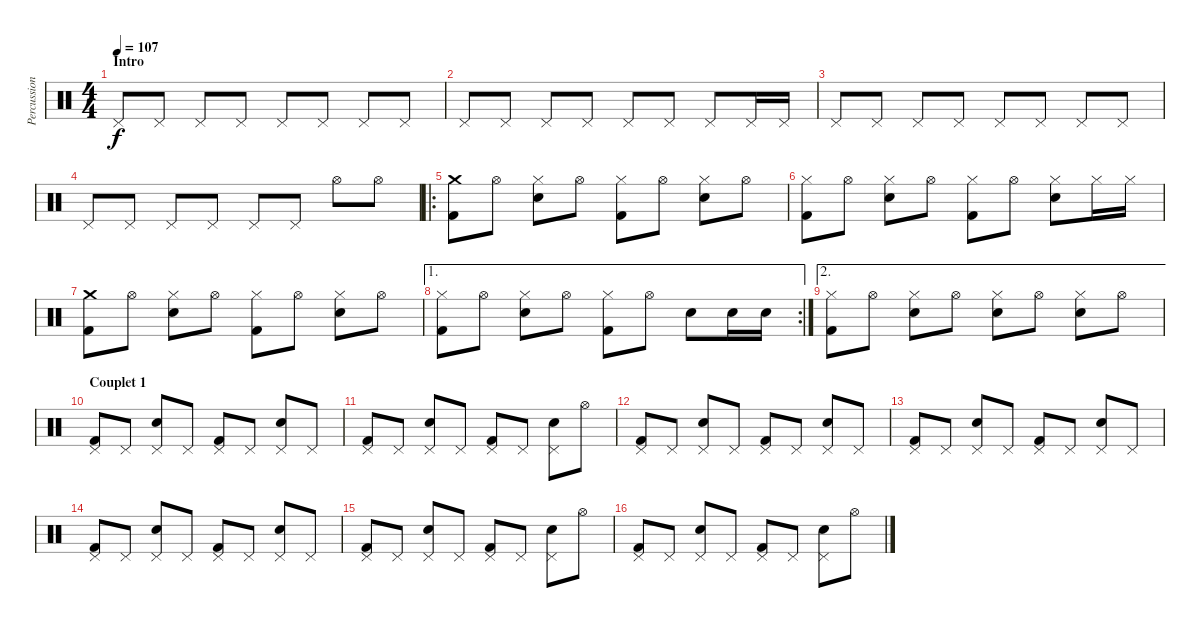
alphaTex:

\track ("Percussions" "Percussion") {instrument percussion}
\staff {score}
\articulation defaults
\ts (4 4)
\section ("" "Intro")
\tempo 107
\clef neutral
\ks c "Pedal Hi-Hat (hit)".8{dy f} "Pedal Hi-Hat (hit)".8 "Pedal Hi-Hat (hit)".8 "Pedal Hi-Hat (hit)".8 "Pedal Hi-Hat (hit)".8 "Pedal Hi-Hat (hit)".8 "Pedal Hi-Hat (hit)".8 "Pedal Hi-Hat (hit)".8
|
"Pedal Hi-Hat (hit)".8 "Pedal Hi-Hat (hit)".8 "Pedal Hi-Hat (hit)".8 "Pedal Hi-Hat (hit)".8 "Pedal Hi-Hat (hit)".8 "Pedal Hi-Hat (hit)".8 "Pedal Hi-Hat (hit)".8 "Pedal Hi-Hat (hit)".16 "Pedal Hi-Hat (hit)".16 |
"Pedal Hi-Hat (hit)".8 "Pedal Hi-Hat (hit)".8 "Pedal Hi-Hat (hit)".8 "Pedal Hi-Hat (hit)".8 "Pedal Hi-Hat (hit)".8 "Pedal Hi-Hat (hit)".8 "Pedal Hi-Hat (hit)".8 "Pedal Hi-Hat (hit)".8 |
"Pedal Hi-Hat (hit)".8 "Pedal Hi-Hat (hit)".8 "Pedal Hi-Hat (hit)".8 "Pedal Hi-Hat (hit)".8 "Pedal Hi-Hat (hit)".8 "Pedal Hi-Hat (hit)".8 "Hi-Hat (open)".8 "Hi-Hat (open)".8 |
\ro
("Crash medium (hit)" "Kick (hit) 2").8 "Hi-Hat (open)".8 ("Hi-Hat (closed)" "Electric Snare (hit)").8 "Hi-Hat (open)".8 ("Hi-Hat (closed)" "Kick (hit) 2").8 "Hi-Hat (open)".8 ("Hi-Hat (closed)" "Electric Snare (hit)").8 "Hi-Hat (open)".8 |
("Hi-Hat (closed)" "Kick (hit) 2").8 "Hi-Hat (open)".8 ("Hi-Hat (closed)" "Electric Snare (hit)").8 "Hi-Hat (open)".8 ("Hi-Hat (closed)" "Kick (hit) 2").8 "Hi-Hat (open)".8 ("Hi-Hat (closed)" "Electric Snare (hit)").8 "Hi-Hat (closed)".16 "Hi-Hat (closed)".16 |
("Crash medium (hit)" "Kick (hit) 2").8 "Hi-Hat (open)".8 ("Hi-Hat (closed)" "Electric Snare (hit)").8 "Hi-Hat (open)".8 ("Hi-Hat (closed)" "Kick (hit) 2").8 "Hi-Hat (open)".8 ("Hi-Hat (closed)" "Electric Snare (hit)").8 "Hi-Hat (open)".8 |
\ae 1
\rc 2
("Hi-Hat (closed)" "Kick (hit) 2").8 "Hi-Hat (open)".8 ("Hi-Hat (closed)" "Electric Snare (hit)").8 "Hi-Hat (open)".8 ("Hi-Hat (closed)" "Kick (hit) 2").8 "Hi-Hat (open)".8 "Electric Snare (hit)".8 "Electric Snare (hit)".16 "Electric Snare (hit)".16 |
\ae 2
("Hi-Hat (closed)" "Kick (hit) 2").8 "Hi-Hat (open)".8 ("Hi-Hat (closed)" "Electric Snare (hit)").8 "Hi-Hat (open)".8 ("Hi-Hat (closed)" "Electric Snare (hit)").8 "Hi-Hat (open)".8 ("Hi-Hat (closed)" "Electric Snare (hit)").8 "Hi-Hat (open)".8 |
\section ("" "Couplet 1")
("Pedal Hi-Hat (hit)" "Kick (hit) 2").8 "Pedal Hi-Hat (hit)".8 ("Pedal Hi-Hat (hit)" "Electric Snare (hit)").8 "Pedal Hi-Hat (hit)".8 ("Pedal Hi-Hat (hit)" "Kick (hit) 2").8 "Pedal Hi-Hat (hit)".8 ("Pedal Hi-Hat (hit)" "Electric Snare (hit)").8 "Pedal Hi-Hat (hit)".8 |
("Pedal Hi-Hat (hit)" "Kick (hit) 2").8 "Pedal Hi-Hat (hit)".8 ("Pedal Hi-Hat (hit)" "Electric Snare (hit)").8 "Pedal Hi-Hat (hit)".8 ("Pedal Hi-Hat (hit)" "Kick (hit) 2").8 "Pedal Hi-Hat (hit)".8 ("Pedal Hi-Hat (hit)" "Electric Snare (hit)").8 "Hi-Hat (open)".8 |
("Pedal Hi-Hat (hit)" "Kick (hit) 2").8 "Pedal Hi-Hat (hit)".8 ("Pedal Hi-Hat (hit)" "Electric Snare (hit)").8 "Pedal Hi-Hat (hit)".8 ("Pedal Hi-Hat (hit)" "Kick (hit) 2").8 "Pedal Hi-Hat (hit)".8 ("Pedal Hi-Hat (hit)" "Electric Snare (hit)").8 "Pedal Hi-Hat (hit)".8 |
("Pedal Hi-Hat (hit)" "Kick (hit) 2").8 "Pedal Hi-Hat (hit)".8 ("Pedal Hi-Hat (hit)" "Electric Snare (hit)").8 "Pedal Hi-Hat (hit)".8 ("Pedal Hi-Hat (hit)" "Kick (hit) 2").8 "Pedal Hi-Hat (hit)".8 ("Pedal Hi-Hat (hit)" "Electric Snare (hit)").8 "Pedal Hi-Hat (hit)".8 |
("Pedal Hi-Hat (hit)" "Kick (hit) 2").8 "Pedal Hi-Hat (hit)".8 ("Pedal Hi-Hat (hit)" "Electric Snare (hit)").8 "Pedal Hi-Hat (hit)".8 ("Pedal Hi-Hat (hit)" "Kick (hit) 2").8 "Pedal Hi-Hat (hit)".8 ("Pedal Hi-Hat (hit)" "Electric Snare (hit)").8 "Pedal Hi-Hat (hit)".8 |
("Pedal Hi-Hat (hit)" "Kick (hit) 2").8 "Pedal Hi-Hat (hit)".8 ("Pedal Hi-Hat (hit)" "Electric Snare (hit)").8 "Pedal Hi-Hat (hit)".8 ("Pedal Hi-Hat (hit)" "Kick (hit) 2").8 "Pedal Hi-Hat (hit)".8 ("Pedal Hi-Hat (hit)" "Electric Snare (hit)").8 "Hi-Hat (open)".8 |
("Pedal Hi-Hat (hit)" "Kick (hit) 2").8 "Pedal Hi-Hat (hit)".8 ("Pedal Hi-Hat (hit)" "Electric Snare (hit)").8 "Pedal Hi-Hat (hit)".8 ("Pedal Hi-Hat (hit)" "Kick (hit) 2").8 "Pedal Hi-Hat (hit)".8 ("Pedal Hi-Hat (hit)" "Electric Snare (hit)").8 "Hi-Hat (open)".8
